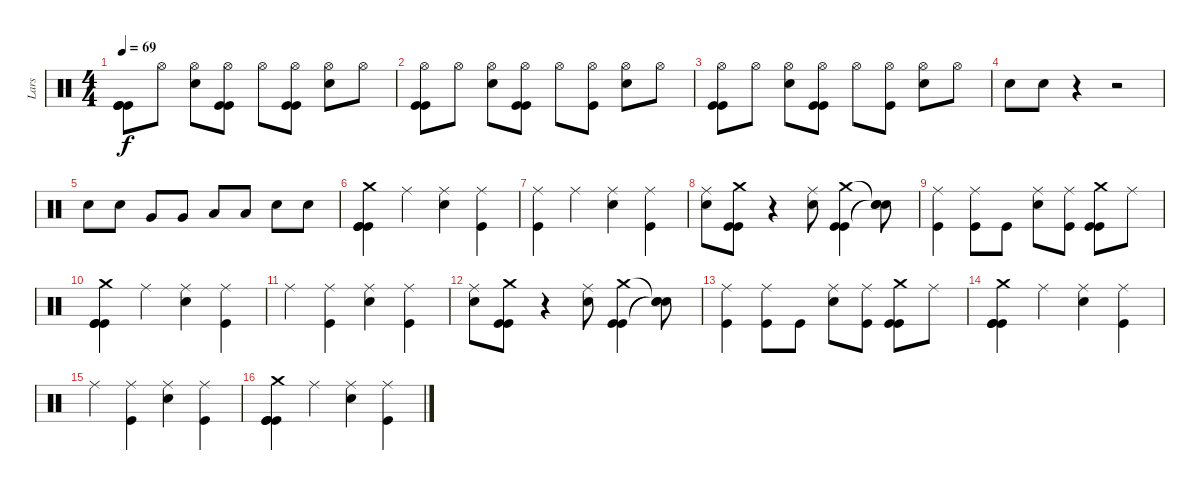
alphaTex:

\track ("Lars" "Lars") {instrument percussion}
\staff {score}
\articulation defaults
\ts (4 4)
\tempo 69
\clef neutral
\ks c
("Kick (hit)" "Kick (hit)" "Kick (hit)").8{dy f} "Hi-Hat (open)".8 ("Hi-Hat (open)" "Electric Snare (hit)").8 ("Hi-Hat (open)" "Kick (hit)" "Kick (hit)").8 "Hi-Hat (open)".8 ("Hi-Hat (open)" "Kick (hit)" "Kick (hit)").8 ("Hi-Hat (open)" "Electric Snare (hit)").8 "Hi-Hat (open)".8 |
("Hi-Hat (open)" "Kick (hit)" "Kick (hit)").8 "Hi-Hat (open)".8 ("Hi-Hat (open)" "Electric Snare (hit)").8 ("Hi-Hat (open)" "Kick (hit)" "Kick (hit)").8 "Hi-Hat (open)".8 ("Hi-Hat (open)" "Kick (hit)").8 ("Hi-Hat (open)" "Electric Snare (hit)").8 "Hi-Hat (open)".8 |
("Hi-Hat (open)" "Kick (hit)" "Kick (hit)").8 "Hi-Hat (open)".8 ("Hi-Hat (open)" "Electric Snare (hit)").8 ("Hi-Hat (open)" "Kick (hit)" "Kick (hit)").8 "Hi-Hat (open)".8 ("Hi-Hat (open)" "Kick (hit)").8 ("Hi-Hat (open)" "Electric Snare (hit)").8 "Hi-Hat (open)".8 |
"Electric Snare (hit)".8 "Electric Snare (hit)".8 r.4 r.2 |
"Electric Snare (hit)".8 "Electric Snare (hit)".8 "Very Low Tom (hit)".8 "Very Low Tom (hit)".8 "Low Floor Tom (hit)".8 "Low Floor Tom (hit)".8 "Electric Snare (hit)".8 "Electric Snare (hit)".8 |
("Kick (hit)" "Kick (hit)" "Kick (hit)" "Crash medium (hit)").4 "Ride (middle)".4 ("Ride (middle)" "Electric Snare (hit)").4 ("Ride (middle)" "Kick (hit)").4 |
("Ride (middle)" "Kick (hit)").4 "Ride (middle)".4 ("Ride (middle)" "Electric Snare (hit)").4 ("Ride (middle)" "Kick (hit)").4 |
("Ride (middle)" "Electric Snare (hit)").8 ("Kick (hit)" "Kick (hit)" "Crash medium (hit)").8 r.4 ("Ride (middle)" "Electric Snare (hit)").8 ("Kick (hit)" "Kick (hit)" "Crash medium (hit)").4 ("Snare (hit)"{t} "Snare (hit)"{t} "Snare (hit)"{t}).8 |
("Ride (middle)" "Kick (hit)").4 ("Ride (middle)" "Kick (hit)").8 "Kick (hit)".8 ("Ride (middle)" "Electric Snare (hit)").8 ("Ride (middle)" "Kick (hit)").8 ("Kick (hit)" "Kick (hit)" "Crash medium (hit)").8 "Ride (middle)".8 |
("Kick (hit)" "Kick (hit)" "Kick (hit)" "Crash medium (hit)").4 "Ride (middle)".4 ("Ride (middle)" "Electric Snare (hit)").4 ("Ride (middle)" "Kick (hit)").4 |
"Ride (middle)".4 ("Ride (middle)" "Kick (hit)").4 ("Ride (middle)" "Electric Snare (hit)").4 ("Ride (middle)" "Kick (hit)").4 |
("Ride (middle)" "Electric Snare (hit)").8 ("Kick (hit)" "Kick (hit)" "Crash medium (hit)").8 r.4 ("Ride (middle)" "Electric Snare (hit)").8 ("Kick (hit)" "Kick (hit)" "Crash medium (hit)").4 ("Snare (hit)"{t} "Snare (hit)"{t} "Snare (hit)"{t}).8 |
("Ride (middle)" "Kick (hit)").4 ("Ride (middle)" "Kick (hit)").8 "Kick (hit)".8 ("Ride (middle)" "Electric Snare (hit)").8 ("Ride (middle)" "Kick (hit)").8 ("Kick (hit)" "Kick (hit)" "Crash medium (hit)").8 "Ride (middle)".8 |
("Kick (hit)" "Kick (hit)" "Kick (hit)" "Crash medium (hit)").4 "Ride (middle)".4 ("Ride (middle)" "Electric Snare (hit)").4 ("Ride (middle)" "Kick (hit)").4 |
"Ride (middle)".4 ("Ride (middle)" "Kick (hit)").4 ("Ride (middle)" "Electric Snare (hit)").4 ("Ride (middle)" "Kick (hit)").4 |
("Kick (hit)" "Kick (hit)" "Kick (hit)" "Crash medium (hit)").4 "Ride (middle)".4 ("Ride (middle)" "Electric Snare (hit)").4 ("Ride (middle)" "Kick (hit)").4
